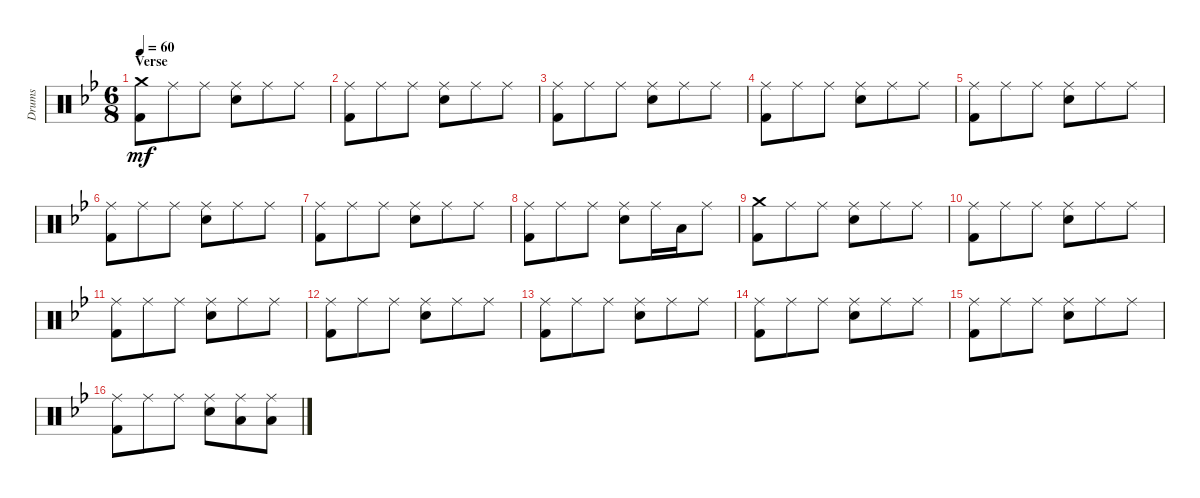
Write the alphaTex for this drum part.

\track ("Drums" "Drums") {instrument percussion}
\staff {score}
\articulation defaults
\ts (6 8)
\section ("" "Verse")
\tempo 60
\clef neutral
\ks bb
("Crash medium (hit)" "Kick (hit) 2").8{dy mf} "Ride (middle)".8 "Ride (middle)".8 ("Ride (middle)" "Electric Snare (hit)").8 "Ride (middle)".8 "Ride (middle)".8 |
("Ride (middle)" "Kick (hit) 2").8 "Ride (middle)".8 "Ride (middle)".8 ("Ride (middle)" "Electric Snare (hit)").8 "Ride (middle)".8 "Ride (middle)".8 |
("Ride (middle)" "Kick (hit) 2").8 "Ride (middle)".8 "Ride (middle)".8 ("Ride (middle)" "Electric Snare (hit)").8 "Ride (middle)".8 "Ride (middle)".8 |
("Ride (middle)" "Kick (hit) 2").8 "Ride (middle)".8 "Ride (middle)".8 ("Ride (middle)" "Electric Snare (hit)").8 "Ride (middle)".8 "Ride (middle)".8 |
("Ride (middle)" "Kick (hit) 2").8 "Ride (middle)".8 "Ride (middle)".8 ("Ride (middle)" "Electric Snare (hit)").8 "Ride (middle)".8 "Ride (middle)".8 |
("Ride (middle)" "Kick (hit) 2").8 "Ride (middle)".8 "Ride (middle)".8 ("Ride (middle)" "Electric Snare (hit)").8 "Ride (middle)".8 "Ride (middle)".8 |
("Ride (middle)" "Kick (hit) 2").8 "Ride (middle)".8 "Ride (middle)".8 ("Ride (middle)" "Electric Snare (hit)").8 "Ride (middle)".8 "Ride (middle)".8 |
("Ride (middle)" "Kick (hit) 2").8 "Ride (middle)".8 "Ride (middle)".8 ("Ride (middle)" "Electric Snare (hit)").8 "Ride (middle)".16 "Low Tom (hit)".16 "Ride (middle)".8 |
("Crash medium (hit)" "Kick (hit) 2").8 "Ride (middle)".8 "Ride (middle)".8 ("Ride (middle)" "Electric Snare (hit)").8 "Ride (middle)".8 "Ride (middle)".8 |
("Ride (middle)" "Kick (hit) 2").8 "Ride (middle)".8 "Ride (middle)".8 ("Ride (middle)" "Electric Snare (hit)").8 "Ride (middle)".8 "Ride (middle)".8 |
("Ride (middle)" "Kick (hit) 2").8 "Ride (middle)".8 "Ride (middle)".8 ("Ride (middle)" "Electric Snare (hit)").8 "Ride (middle)".8 "Ride (middle)".8 |
("Ride (middle)" "Kick (hit) 2").8 "Ride (middle)".8 "Ride (middle)".8 ("Ride (middle)" "Electric Snare (hit)").8 "Ride (middle)".8 "Ride (middle)".8 |
("Ride (middle)" "Kick (hit) 2").8 "Ride (middle)".8 "Ride (middle)".8 ("Ride (middle)" "Electric Snare (hit)").8 "Ride (middle)".8 "Ride (middle)".8 |
("Ride (middle)" "Kick (hit) 2").8 "Ride (middle)".8 "Ride (middle)".8 ("Ride (middle)" "Electric Snare (hit)").8 "Ride (middle)".8 "Ride (middle)".8 |
("Ride (middle)" "Kick (hit) 2").8 "Ride (middle)".8 "Ride (middle)".8 ("Ride (middle)" "Electric Snare (hit)").8 "Ride (middle)".8 "Ride (middle)".8 |
("Ride (middle)" "Kick (hit) 2").8 "Ride (middle)".8 "Ride (middle)".8 ("Ride (middle)" "Electric Snare (hit)").8 ("Ride (middle)" "Low Tom (hit)").8 ("Ride (middle)" "Low Tom (hit)").8
